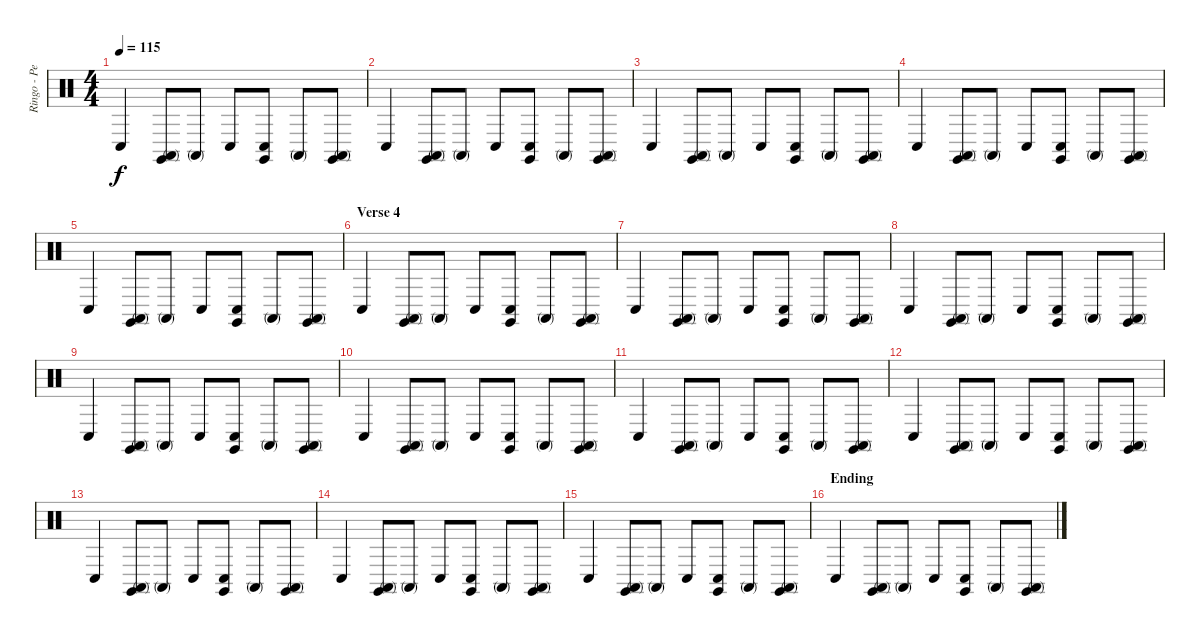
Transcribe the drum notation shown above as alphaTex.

\track ("Ringo - Percussion" "Ringo - Pe") {instrument percussion}
\staff {score}
\articulation defaults
\ts (4 4)
\tempo 115
\clef neutral
\ks c "Conga low (hit)".4{dy f}
("Conga high (mute)" "Claves (hit)").8 "Conga high (mute)".8 "Conga low (hit)".8 ("Conga low (hit)" "Claves (hit)").8 "Conga high (mute)".8 ("Conga high (mute)" "Claves (hit)").8 |
"Conga low (hit)".4 ("Conga high (mute)" "Claves (hit)").8 "Conga high (mute)".8 "Conga low (hit)".8 ("Conga low (hit)" "Claves (hit)").8 "Conga high (mute)".8 ("Conga high (mute)" "Claves (hit)").8 |
"Conga low (hit)".4 ("Conga high (mute)" "Claves (hit)").8 "Conga high (mute)".8 "Conga low (hit)".8 ("Conga low (hit)" "Claves (hit)").8 "Conga high (mute)".8 ("Conga high (mute)" "Claves (hit)").8 |
"Conga low (hit)".4 ("Conga high (mute)" "Claves (hit)").8 "Conga high (mute)".8 "Conga low (hit)".8 ("Conga low (hit)" "Claves (hit)").8 "Conga high (mute)".8 ("Conga high (mute)" "Claves (hit)").8 |
"Conga low (hit)".4 ("Conga high (mute)" "Claves (hit)").8 "Conga high (mute)".8 "Conga low (hit)".8 ("Conga low (hit)" "Claves (hit)").8 "Conga high (mute)".8 ("Conga high (mute)" "Claves (hit)").8 |
\section ("" "Verse 4")
"Conga low (hit)".4 ("Conga high (mute)" "Claves (hit)").8 "Conga high (mute)".8 "Conga low (hit)".8 ("Conga low (hit)" "Claves (hit)").8 "Conga high (mute)".8 ("Conga high (mute)" "Claves (hit)").8 |
"Conga low (hit)".4 ("Conga high (mute)" "Claves (hit)").8 "Conga high (mute)".8 "Conga low (hit)".8 ("Conga low (hit)" "Claves (hit)").8 "Conga high (mute)".8 ("Conga high (mute)" "Claves (hit)").8 |
"Conga low (hit)".4 ("Conga high (mute)" "Claves (hit)").8 "Conga high (mute)".8 "Conga low (hit)".8 ("Conga low (hit)" "Claves (hit)").8 "Conga high (mute)".8 ("Conga high (mute)" "Claves (hit)").8 |
"Conga low (hit)".4 ("Conga high (mute)" "Claves (hit)").8 "Conga high (mute)".8 "Conga low (hit)".8 ("Conga low (hit)" "Claves (hit)").8 "Conga high (mute)".8 ("Conga high (mute)" "Claves (hit)").8 |
"Conga low (hit)".4 ("Conga high (mute)" "Claves (hit)").8 "Conga high (mute)".8 "Conga low (hit)".8 ("Conga low (hit)" "Claves (hit)").8 "Conga high (mute)".8 ("Conga high (mute)" "Claves (hit)").8 |
"Conga low (hit)".4 ("Conga high (mute)" "Claves (hit)").8 "Conga high (mute)".8 "Conga low (hit)".8 ("Conga low (hit)" "Claves (hit)").8 "Conga high (mute)".8 ("Conga high (mute)" "Claves (hit)").8 |
"Conga low (hit)".4 ("Conga high (mute)" "Claves (hit)").8 "Conga high (mute)".8 "Conga low (hit)".8 ("Conga low (hit)" "Claves (hit)").8 "Conga high (mute)".8 ("Conga high (mute)" "Claves (hit)").8 |
"Conga low (hit)".4 ("Conga high (mute)" "Claves (hit)").8 "Conga high (mute)".8 "Conga low (hit)".8 ("Conga low (hit)" "Claves (hit)").8 "Conga high (mute)".8 ("Conga high (mute)" "Claves (hit)").8 |
"Conga low (hit)".4 ("Conga high (mute)" "Claves (hit)").8 "Conga high (mute)".8 "Conga low (hit)".8 ("Conga low (hit)" "Claves (hit)").8 "Conga high (mute)".8 ("Conga high (mute)" "Claves (hit)").8 |
"Conga low (hit)".4 ("Conga high (mute)" "Claves (hit)").8 "Conga high (mute)".8 "Conga low (hit)".8 ("Conga low (hit)" "Claves (hit)").8 "Conga high (mute)".8 ("Conga high (mute)" "Claves (hit)").8 |
\section ("" "Ending")
"Conga low (hit)".4 ("Conga high (mute)" "Claves (hit)").8 "Conga high (mute)".8 "Conga low (hit)".8 ("Conga low (hit)" "Claves (hit)").8 "Conga high (mute)".8 ("Conga high (mute)" "Claves (hit)").8
